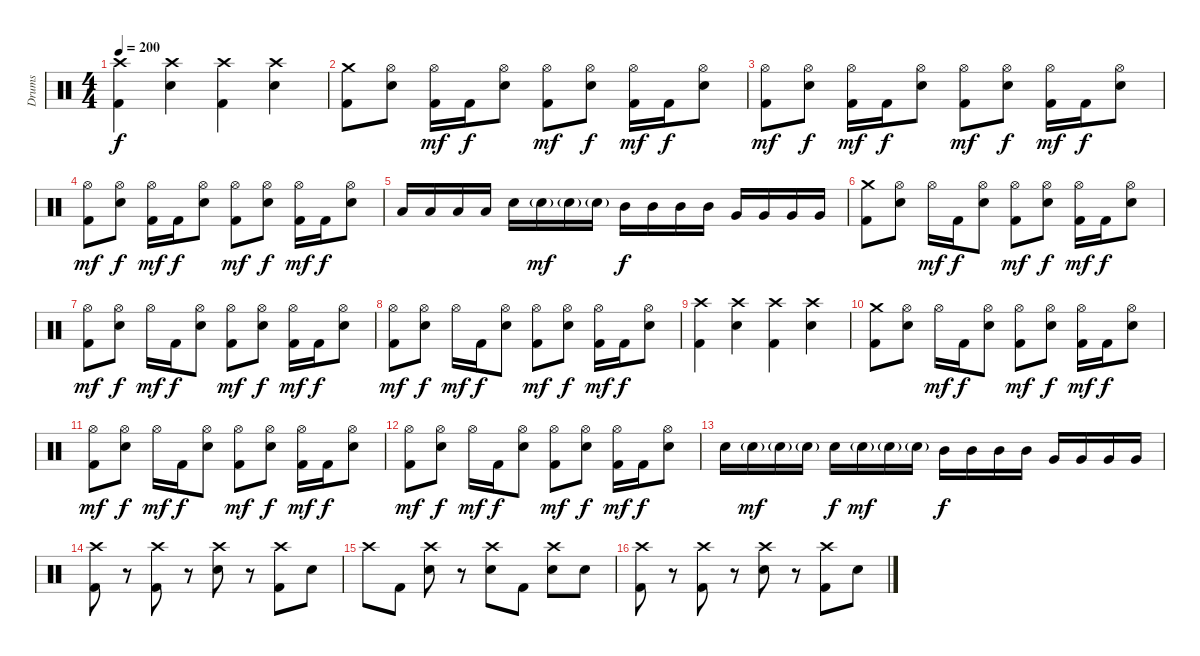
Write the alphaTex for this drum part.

\track ("Drums" "Drums") {instrument percussion}
\staff {score}
\articulation defaults
\ts (4 4)
\tempo 200
\clef neutral
\ks c
("Crash high (hit)" "Kick (hit) 2").4{dy f} ("Crash high (hit)" "Electric Snare (hit)").4 ("Crash high (hit)" "Kick (hit) 2").4 ("Crash high (hit)" "Electric Snare (hit)").4 |
("Crash medium (hit)" "Kick (hit) 2").8 ("Hi-Hat (open)" "Electric Snare (hit)").8 ("Hi-Hat (open)" "Kick (hit) 2").16{dy mf} "Kick (hit) 2".16{dy f} ("Hi-Hat (open)" "Electric Snare (hit)").8 ("Hi-Hat (open)" "Kick (hit) 2").8{dy mf} ("Hi-Hat (open)" "Electric Snare (hit)").8{dy f} ("Hi-Hat (open)" "Kick (hit) 2").16{dy mf} "Kick (hit) 2".16{dy f} ("Hi-Hat (open)" "Electric Snare (hit)").8 |
("Hi-Hat (open)" "Kick (hit) 2").8{dy mf} ("Hi-Hat (open)" "Electric Snare (hit)").8{dy f} ("Hi-Hat (open)" "Kick (hit) 2").16{dy mf} "Kick (hit) 2".16{dy f} ("Hi-Hat (open)" "Electric Snare (hit)").8 ("Hi-Hat (open)" "Kick (hit) 2").8{dy mf} ("Hi-Hat (open)" "Electric Snare (hit)").8{dy f} ("Hi-Hat (open)" "Kick (hit) 2").16{dy mf} "Kick (hit) 2".16{dy f} ("Hi-Hat (open)" "Electric Snare (hit)").8 |
("Hi-Hat (open)" "Kick (hit) 2").8{dy mf} ("Hi-Hat (open)" "Electric Snare (hit)").8{dy f} ("Hi-Hat (open)" "Kick (hit) 2").16{dy mf} "Kick (hit) 2".16{dy f} ("Hi-Hat (open)" "Electric Snare (hit)").8 ("Hi-Hat (open)" "Kick (hit) 2").8{dy mf} ("Hi-Hat (open)" "Electric Snare (hit)").8{dy f} ("Hi-Hat (open)" "Kick (hit) 2").16{dy mf} "Kick (hit) 2".16{dy f} ("Hi-Hat (open)" "Electric Snare (hit)").8 |
"Low Tom (hit)".16 "Low Tom (hit)".16 "Low Tom (hit)".16 "Low Tom (hit)".16 "Electric Snare (hit)".16 "Electric Snare (hit)"{g}.16{dy mf} "Electric Snare (hit)"{g}.16 "Electric Snare (hit)"{g}.16 "Mid Tom (hit)".16{dy f} "Mid Tom (hit)".16 "Mid Tom (hit)".16 "Mid Tom (hit)".16 "Very Low Tom (hit)".16 "Very Low Tom (hit)".16 "Very Low Tom (hit)".16 "Very Low Tom (hit)".16 |
("Crash medium (hit)" "Kick (hit) 2").8 ("Hi-Hat (open)" "Electric Snare (hit)").8 "Hi-Hat (open)".16{dy mf} "Kick (hit) 2".16{dy f} ("Hi-Hat (open)" "Electric Snare (hit)").8 ("Hi-Hat (open)" "Kick (hit) 2").8{dy mf} ("Hi-Hat (open)" "Electric Snare (hit)").8{dy f} ("Hi-Hat (open)" "Kick (hit) 2").16{dy mf} "Kick (hit) 2".16{dy f} ("Hi-Hat (open)" "Electric Snare (hit)").8 |
("Hi-Hat (open)" "Kick (hit) 2").8{dy mf} ("Hi-Hat (open)" "Electric Snare (hit)").8{dy f} "Hi-Hat (open)".16{dy mf} "Kick (hit) 2".16{dy f} ("Hi-Hat (open)" "Electric Snare (hit)").8 ("Hi-Hat (open)" "Kick (hit) 2").8{dy mf} ("Hi-Hat (open)" "Electric Snare (hit)").8{dy f} ("Hi-Hat (open)" "Kick (hit) 2").16{dy mf} "Kick (hit) 2".16{dy f} ("Hi-Hat (open)" "Electric Snare (hit)").8 |
("Hi-Hat (open)" "Kick (hit) 2").8{dy mf} ("Hi-Hat (open)" "Electric Snare (hit)").8{dy f} "Hi-Hat (open)".16{dy mf} "Kick (hit) 2".16{dy f} ("Hi-Hat (open)" "Electric Snare (hit)").8 ("Hi-Hat (open)" "Kick (hit) 2").8{dy mf} ("Hi-Hat (open)" "Electric Snare (hit)").8{dy f} ("Hi-Hat (open)" "Kick (hit) 2").16{dy mf} "Kick (hit) 2".16{dy f} ("Hi-Hat (open)" "Electric Snare (hit)").8 |
("Crash high (hit)" "Kick (hit) 2").4 ("Crash high (hit)" "Electric Snare (hit)").4 ("Crash high (hit)" "Kick (hit) 2").4 ("Crash high (hit)" "Electric Snare (hit)").4 |
("Crash medium (hit)" "Kick (hit) 2").8 ("Hi-Hat (open)" "Electric Snare (hit)").8 "Hi-Hat (open)".16{dy mf} "Kick (hit) 2".16{dy f} ("Hi-Hat (open)" "Electric Snare (hit)").8 ("Hi-Hat (open)" "Kick (hit) 2").8{dy mf} ("Hi-Hat (open)" "Electric Snare (hit)").8{dy f} ("Hi-Hat (open)" "Kick (hit) 2").16{dy mf} "Kick (hit) 2".16{dy f} ("Hi-Hat (open)" "Electric Snare (hit)").8 |
("Hi-Hat (open)" "Kick (hit) 2").8{dy mf} ("Hi-Hat (open)" "Electric Snare (hit)").8{dy f} "Hi-Hat (open)".16{dy mf} "Kick (hit) 2".16{dy f} ("Hi-Hat (open)" "Electric Snare (hit)").8 ("Hi-Hat (open)" "Kick (hit) 2").8{dy mf} ("Hi-Hat (open)" "Electric Snare (hit)").8{dy f} ("Hi-Hat (open)" "Kick (hit) 2").16{dy mf} "Kick (hit) 2".16{dy f} ("Hi-Hat (open)" "Electric Snare (hit)").8 |
("Hi-Hat (open)" "Kick (hit) 2").8{dy mf} ("Hi-Hat (open)" "Electric Snare (hit)").8{dy f} "Hi-Hat (open)".16{dy mf} "Kick (hit) 2".16{dy f} ("Hi-Hat (open)" "Electric Snare (hit)").8 ("Hi-Hat (open)" "Kick (hit) 2").8{dy mf} ("Hi-Hat (open)" "Electric Snare (hit)").8{dy f} ("Hi-Hat (open)" "Kick (hit) 2").16{dy mf} "Kick (hit) 2".16{dy f} ("Hi-Hat (open)" "Electric Snare (hit)").8 |
"Electric Snare (hit)".16 "Electric Snare (hit)"{g}.16{dy mf} "Electric Snare (hit)"{g}.16 "Electric Snare (hit)"{g}.16 "Electric Snare (hit)".16{dy f} "Electric Snare (hit)"{g}.16{dy mf} "Electric Snare (hit)"{g}.16 "Electric Snare (hit)"{g}.16 "Mid Tom (hit)".16{dy f} "Mid Tom (hit)".16 "Mid Tom (hit)".16 "Mid Tom (hit)".16 "Very Low Tom (hit)".16 "Very Low Tom (hit)".16 "Very Low Tom (hit)".16 "Very Low Tom (hit)".16 |
("Crash high (hit)" "Kick (hit) 2").8 r.8 ("Crash high (hit)" "Kick (hit) 2").8 r.8 ("Crash high (hit)" "Electric Snare (hit)").8 r.8 ("Crash high (hit)" "Kick (hit) 2").8 "Electric Snare (hit)".8 |
"Crash high (hit)".8 "Kick (hit) 2".8 ("Crash high (hit)" "Electric Snare (hit)").8 r.8 ("Crash high (hit)" "Electric Snare (hit)").8 "Kick (hit) 2".8 ("Crash high (hit)" "Electric Snare (hit)").8 "Electric Snare (hit)".8 |
("Crash high (hit)" "Kick (hit) 2").8 r.8 ("Crash high (hit)" "Kick (hit) 2").8 r.8 ("Crash high (hit)" "Electric Snare (hit)").8 r.8 ("Crash high (hit)" "Kick (hit) 2").8 "Electric Snare (hit)".8
